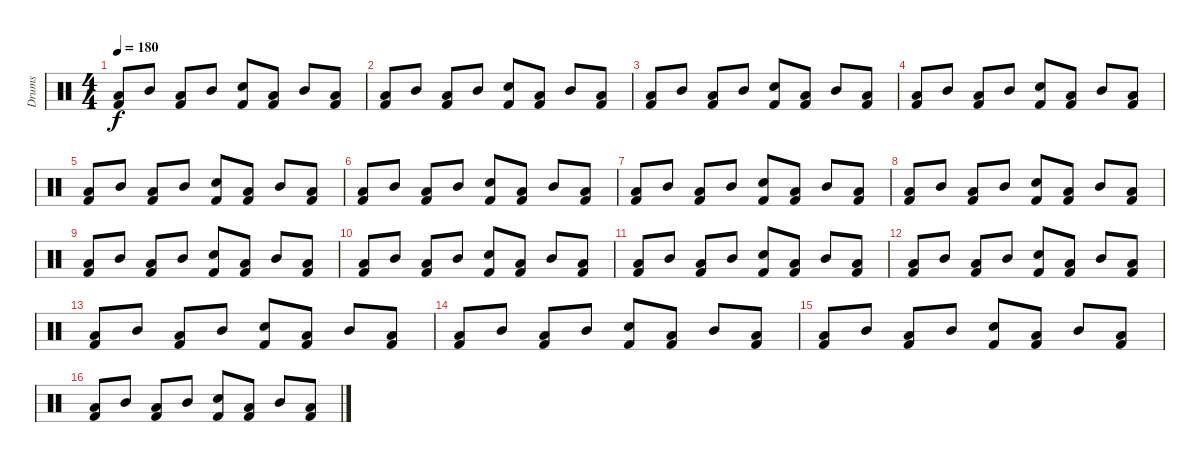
\track ("Drums" "Drums") {instrument percussion}
\staff {score}
\articulation defaults
\ts (4 4)
\tempo 180
\clef neutral
\ks c
("Low Tom (hit)" "Kick (hit) 2").8{dy f} "Mid Tom (hit)".8 ("Low Tom (hit)" "Kick (hit) 2").8 "Mid Tom (hit)".8 ("Snare (hit) 2" "Kick (hit) 2").8 ("Low Tom (hit)" "Kick (hit) 2").8 "Mid Tom (hit)".8 ("Low Tom (hit)" "Kick (hit) 2").8 |
("Low Tom (hit)" "Kick (hit) 2").8 "Mid Tom (hit)".8 ("Low Tom (hit)" "Kick (hit) 2").8 "Mid Tom (hit)".8 ("Snare (hit) 2" "Kick (hit) 2").8 ("Low Tom (hit)" "Kick (hit) 2").8 "Mid Tom (hit)".8 ("Low Tom (hit)" "Kick (hit) 2").8 |
("Low Tom (hit)" "Kick (hit) 2").8 "Mid Tom (hit)".8 ("Low Tom (hit)" "Kick (hit) 2").8 "Mid Tom (hit)".8 ("Snare (hit) 2" "Kick (hit) 2").8 ("Low Tom (hit)" "Kick (hit) 2").8 "Mid Tom (hit)".8 ("Low Tom (hit)" "Kick (hit) 2").8 |
("Low Tom (hit)" "Kick (hit) 2").8 "Mid Tom (hit)".8 ("Low Tom (hit)" "Kick (hit) 2").8 "Mid Tom (hit)".8 ("Snare (hit) 2" "Kick (hit) 2").8 ("Low Tom (hit)" "Kick (hit) 2").8 "Mid Tom (hit)".8 ("Low Tom (hit)" "Kick (hit) 2").8 |
("Low Tom (hit)" "Kick (hit) 2").8 "Mid Tom (hit)".8 ("Low Tom (hit)" "Kick (hit) 2").8 "Mid Tom (hit)".8 ("Snare (hit) 2" "Kick (hit) 2").8 ("Low Tom (hit)" "Kick (hit) 2").8 "Mid Tom (hit)".8 ("Low Tom (hit)" "Kick (hit) 2").8 |
("Low Tom (hit)" "Kick (hit) 2").8 "Mid Tom (hit)".8 ("Low Tom (hit)" "Kick (hit) 2").8 "Mid Tom (hit)".8 ("Snare (hit) 2" "Kick (hit) 2").8 ("Low Tom (hit)" "Kick (hit) 2").8 "Mid Tom (hit)".8 ("Low Tom (hit)" "Kick (hit) 2").8 |
("Low Tom (hit)" "Kick (hit) 2").8 "Mid Tom (hit)".8 ("Low Tom (hit)" "Kick (hit) 2").8 "Mid Tom (hit)".8 ("Snare (hit) 2" "Kick (hit) 2").8 ("Low Tom (hit)" "Kick (hit) 2").8 "Mid Tom (hit)".8 ("Low Tom (hit)" "Kick (hit) 2").8 |
("Low Tom (hit)" "Kick (hit) 2").8 "Mid Tom (hit)".8 ("Low Tom (hit)" "Kick (hit) 2").8 "Mid Tom (hit)".8 ("Snare (hit) 2" "Kick (hit) 2").8 ("Low Tom (hit)" "Kick (hit) 2").8 "Mid Tom (hit)".8 ("Low Tom (hit)" "Kick (hit) 2").8 |
("Low Tom (hit)" "Kick (hit) 2").8 "Mid Tom (hit)".8 ("Low Tom (hit)" "Kick (hit) 2").8 "Mid Tom (hit)".8 ("Snare (hit) 2" "Kick (hit) 2").8 ("Low Tom (hit)" "Kick (hit) 2").8 "Mid Tom (hit)".8 ("Low Tom (hit)" "Kick (hit) 2").8 |
("Low Tom (hit)" "Kick (hit) 2").8 "Mid Tom (hit)".8 ("Low Tom (hit)" "Kick (hit) 2").8 "Mid Tom (hit)".8 ("Snare (hit) 2" "Kick (hit) 2").8 ("Low Tom (hit)" "Kick (hit) 2").8 "Mid Tom (hit)".8 ("Low Tom (hit)" "Kick (hit) 2").8 |
("Low Tom (hit)" "Kick (hit) 2").8 "Mid Tom (hit)".8 ("Low Tom (hit)" "Kick (hit) 2").8 "Mid Tom (hit)".8 ("Snare (hit) 2" "Kick (hit) 2").8 ("Low Tom (hit)" "Kick (hit) 2").8 "Mid Tom (hit)".8 ("Low Tom (hit)" "Kick (hit) 2").8 |
("Low Tom (hit)" "Kick (hit) 2").8 "Mid Tom (hit)".8 ("Low Tom (hit)" "Kick (hit) 2").8 "Mid Tom (hit)".8 ("Snare (hit) 2" "Kick (hit) 2").8 ("Low Tom (hit)" "Kick (hit) 2").8 "Mid Tom (hit)".8 ("Low Tom (hit)" "Kick (hit) 2").8 |
("Low Tom (hit)" "Kick (hit) 2").8 "Mid Tom (hit)".8 ("Low Tom (hit)" "Kick (hit) 2").8 "Mid Tom (hit)".8 ("Snare (hit) 2" "Kick (hit) 2").8 ("Low Tom (hit)" "Kick (hit) 2").8 "Mid Tom (hit)".8 ("Low Tom (hit)" "Kick (hit) 2").8 |
("Low Tom (hit)" "Kick (hit) 2").8 "Mid Tom (hit)".8 ("Low Tom (hit)" "Kick (hit) 2").8 "Mid Tom (hit)".8 ("Snare (hit) 2" "Kick (hit) 2").8 ("Low Tom (hit)" "Kick (hit) 2").8 "Mid Tom (hit)".8 ("Low Tom (hit)" "Kick (hit) 2").8 |
("Low Tom (hit)" "Kick (hit) 2").8 "Mid Tom (hit)".8 ("Low Tom (hit)" "Kick (hit) 2").8 "Mid Tom (hit)".8 ("Snare (hit) 2" "Kick (hit) 2").8 ("Low Tom (hit)" "Kick (hit) 2").8 "Mid Tom (hit)".8 ("Low Tom (hit)" "Kick (hit) 2").8 |
("Low Tom (hit)" "Kick (hit) 2").8 "Mid Tom (hit)".8 ("Low Tom (hit)" "Kick (hit) 2").8 "Mid Tom (hit)".8 ("Snare (hit) 2" "Kick (hit) 2").8 ("Low Tom (hit)" "Kick (hit) 2").8 "Mid Tom (hit)".8 ("Low Tom (hit)" "Kick (hit) 2").8
